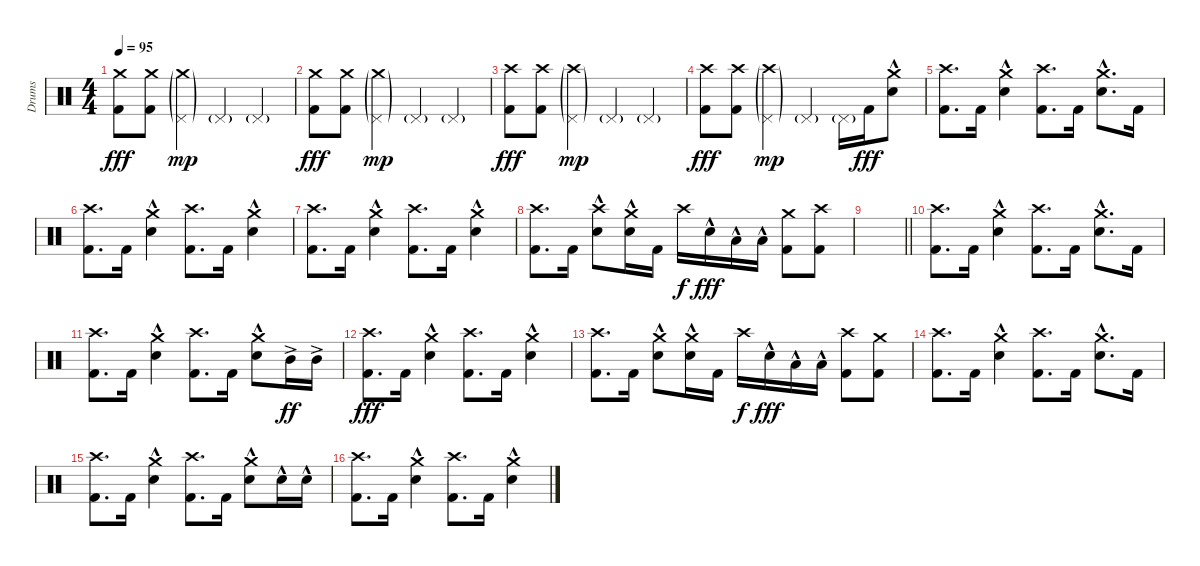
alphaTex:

\track ("Drums" "Drums") {instrument percussion}
\staff {score}
\articulation defaults
\ts (4 4)
\tempo 95
\clef neutral
\ks c
("Crash medium (hit)" "Kick (hit) 2").8{dy fff volume 10} ("Crash medium (hit)" "Kick (hit) 2").8 ("Crash medium (hit)"{g} "Pedal Hi-Hat (hit)"{g}).4{dy mp} "Pedal Hi-Hat (hit)"{g}.4 "Pedal Hi-Hat (hit)"{g}.4 |
("Crash medium (hit)" "Kick (hit) 2").8{dy fff} ("Crash medium (hit)" "Kick (hit) 2").8 ("Crash medium (hit)"{g} "Pedal Hi-Hat (hit)"{g}).4{dy mp} "Pedal Hi-Hat (hit)"{g}.4 "Pedal Hi-Hat (hit)"{g}.4 |
("Crash high (hit)" "Kick (hit) 2").8{dy fff} ("Crash high (hit)" "Kick (hit) 2").8 ("Crash high (hit)"{g} "Pedal Hi-Hat (hit)"{g}).4{dy mp} "Pedal Hi-Hat (hit)"{g}.4 "Pedal Hi-Hat (hit)"{g}.4 |
("Crash high (hit)" "Kick (hit) 2").8{dy fff} ("Crash high (hit)" "Kick (hit) 2").8 ("Crash high (hit)"{g} "Pedal Hi-Hat (hit)"{g}).4{dy mp} "Pedal Hi-Hat (hit)"{g}.4 "Pedal Hi-Hat (hit)"{g}.16 "Kick (hit) 2".16{dy fff} ("Crash medium (hit)" "Electric Snare (hit)"{hac}).8 |
("Crash high (hit)" "Kick (hit) 2").8{d} "Kick (hit) 2".16 ("Crash medium (hit)" "Electric Snare (hit)"{hac}).4 ("Crash high (hit)" "Kick (hit) 2").8{d} "Kick (hit) 2".16 ("Crash medium (hit)" "Electric Snare (hit)"{hac}).8{d} "Kick (hit) 2".16 |
("Crash high (hit)" "Kick (hit) 2").8{d} "Kick (hit) 2".16 ("Crash medium (hit)" "Electric Snare (hit)"{hac}).4 ("Crash high (hit)" "Kick (hit) 2").8{d} "Kick (hit) 2".16 ("Crash medium (hit)" "Electric Snare (hit)"{hac}).4 |
("Crash high (hit)" "Kick (hit) 2").8{d} "Kick (hit) 2".16 ("Crash medium (hit)" "Electric Snare (hit)"{hac}).4 ("Crash high (hit)" "Kick (hit) 2").8{d} "Kick (hit) 2".16 ("Crash medium (hit)" "Electric Snare (hit)"{hac}).4 |
("Crash high (hit)" "Kick (hit) 2").8{d} "Kick (hit) 2".16 ("Crash high (hit)" "Electric Snare (hit)"{hac}).8 ("Crash medium (hit)" "Electric Snare (hit)"{hac}).16 "Kick (hit) 2".16 "Crash high (hit)".16{dy f} "Electric Snare (hit)"{hac}.16{dy fff} "Low Tom (hit)"{hac}.16 "Low Tom (hit)"{hac}.16 ("Crash medium (hit)" "Kick (hit) 2").8 ("Crash high (hit)" "Kick (hit) 2").8 |
\barLineRight lightlight
|
("Crash high (hit)" "Kick (hit) 2").8{d} "Kick (hit) 2".16 ("Crash medium (hit)" "Electric Snare (hit)"{hac}).4 ("Crash high (hit)" "Kick (hit) 2").8{d} "Kick (hit) 2".16 ("Crash medium (hit)" "Electric Snare (hit)"{hac}).8{d} "Kick (hit) 2".16 |
("Crash high (hit)" "Kick (hit) 2").8{d} "Kick (hit) 2".16 ("Crash medium (hit)" "Electric Snare (hit)"{hac}).4 ("Crash high (hit)" "Kick (hit) 2").8{d} "Kick (hit) 2".16 ("Crash medium (hit)" "Electric Snare (hit)"{hac}).8 "Mid Tom (hit)"{ac}.16{dy ff} "Mid Tom (hit)"{ac}.16 |
("Crash high (hit)" "Kick (hit) 2").8{d dy fff} "Kick (hit) 2".16 ("Crash medium (hit)" "Electric Snare (hit)"{hac}).4 ("Crash high (hit)" "Kick (hit) 2").8{d} "Kick (hit) 2".16 ("Crash medium (hit)" "Electric Snare (hit)"{hac}).4 |
("Crash high (hit)" "Kick (hit) 2").8{d} "Kick (hit) 2".16 ("Crash medium (hit)" "Electric Snare (hit)"{hac}).8 ("Crash medium (hit)" "Electric Snare (hit)"{hac}).16 "Kick (hit) 2".16 "Crash high (hit)".16{dy f} "Electric Snare (hit)"{hac}.16{dy fff} "Low Tom (hit)"{hac}.16 "Low Tom (hit)"{hac}.16 ("Crash high (hit)" "Kick (hit) 2").8 ("Crash medium (hit)" "Kick (hit) 2").8 |
("Crash high (hit)" "Kick (hit) 2").8{d} "Kick (hit) 2".16 ("Crash medium (hit)" "Electric Snare (hit)"{hac}).4 ("Crash high (hit)" "Kick (hit) 2").8{d} "Kick (hit) 2".16 ("Crash medium (hit)" "Electric Snare (hit)"{hac}).8{d} "Kick (hit) 2".16 |
("Crash high (hit)" "Kick (hit) 2").8{d} "Kick (hit) 2".16 ("Crash medium (hit)" "Electric Snare (hit)"{hac}).4 ("Crash high (hit)" "Kick (hit) 2").8{d} "Kick (hit) 2".16 ("Crash medium (hit)" "Electric Snare (hit)"{hac}).8 "Electric Snare (hit)"{hac}.16 "Electric Snare (hit)"{hac}.16 |
("Crash high (hit)" "Kick (hit) 2").8{d} "Kick (hit) 2".16 ("Crash medium (hit)" "Electric Snare (hit)"{hac}).4 ("Crash high (hit)" "Kick (hit) 2").8{d} "Kick (hit) 2".16 ("Crash medium (hit)" "Electric Snare (hit)"{hac}).4
